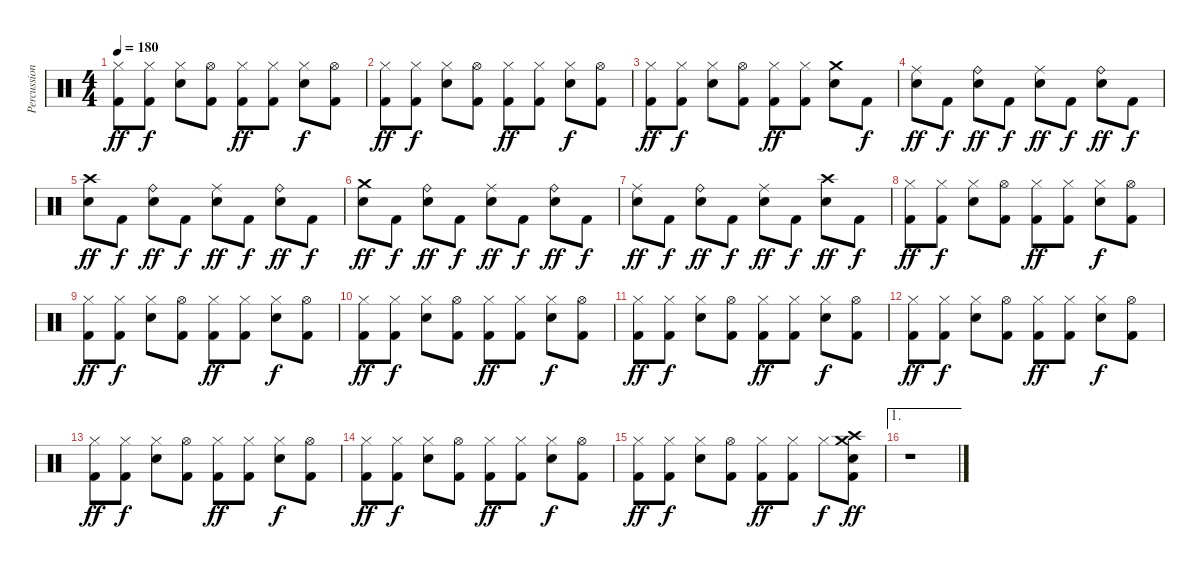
\track ("Percussions" "Percussion") {instrument percussion}
\staff {score}
\articulation defaults
\ts (4 4)
\tempo 180
\clef neutral
\ks c
("Hi-Hat (closed)" "Kick (hit) 2").8{dy ff} ("Hi-Hat (closed)" "Kick (hit) 2").8{dy f} ("Hi-Hat (closed)" "Snare (hit) 2").8 ("Hi-Hat (open)" "Kick (hit) 2").8 ("Hi-Hat (closed)" "Kick (hit) 2").8{dy ff} ("Hi-Hat (closed)" "Kick (hit) 2").8 ("Hi-Hat (closed)" "Snare (hit) 2").8{dy f} ("Hi-Hat (open)" "Kick (hit) 2").8 |
("Hi-Hat (closed)" "Kick (hit) 2").8{dy ff} ("Hi-Hat (closed)" "Kick (hit) 2").8{dy f} ("Hi-Hat (closed)" "Snare (hit) 2").8 ("Hi-Hat (open)" "Kick (hit) 2").8 ("Hi-Hat (closed)" "Kick (hit) 2").8{dy ff} ("Hi-Hat (closed)" "Kick (hit) 2").8 ("Hi-Hat (closed)" "Snare (hit) 2").8{dy f} ("Hi-Hat (open)" "Kick (hit) 2").8 |
("Hi-Hat (closed)" "Kick (hit) 2").8{dy ff} ("Hi-Hat (closed)" "Kick (hit) 2").8{dy f} ("Hi-Hat (closed)" "Snare (hit) 2").8 ("Hi-Hat (open)" "Kick (hit) 2").8 ("Hi-Hat (closed)" "Kick (hit) 2").8{dy ff} ("Hi-Hat (closed)" "Kick (hit) 2").8 ("Crash medium (hit)" "Snare (hit) 2").8 "Kick (hit) 2".8{dy f} |
("Ride (middle)" "Snare (hit) 2").8{dy ff} "Kick (hit) 2".8{dy f} ("Ride (bell)" "Snare (hit) 2").8{dy ff} "Kick (hit) 2".8{dy f} ("Ride (middle)" "Snare (hit) 2").8{dy ff} "Kick (hit) 2".8{dy f} ("Ride (bell)" "Snare (hit) 2").8{dy ff} "Kick (hit) 2".8{dy f} |
("Crash high (hit)" "Snare (hit) 2").8{dy ff} "Kick (hit) 2".8{dy f} ("Ride (bell)" "Snare (hit) 2").8{dy ff} "Kick (hit) 2".8{dy f} ("Ride (middle)" "Snare (hit) 2").8{dy ff} "Kick (hit) 2".8{dy f} ("Ride (bell)" "Snare (hit) 2").8{dy ff} "Kick (hit) 2".8{dy f} |
("Crash medium (hit)" "Snare (hit) 2").8{dy ff} "Kick (hit) 2".8{dy f} ("Ride (bell)" "Snare (hit) 2").8{dy ff} "Kick (hit) 2".8{dy f} ("Ride (middle)" "Snare (hit) 2").8{dy ff} "Kick (hit) 2".8{dy f} ("Ride (bell)" "Snare (hit) 2").8{dy ff} "Kick (hit) 2".8{dy f} |
("Ride (middle)" "Snare (hit) 2").8{dy ff} "Kick (hit) 2".8{dy f} ("Ride (bell)" "Snare (hit) 2").8{dy ff} "Kick (hit) 2".8{dy f} ("Ride (middle)" "Snare (hit) 2").8{dy ff} "Kick (hit) 2".8{dy f} ("Crash high (hit)" "Snare (hit) 2").8{dy ff} "Kick (hit) 2".8{dy f} |
("Hi-Hat (closed)" "Kick (hit) 2").8{dy ff} ("Hi-Hat (closed)" "Kick (hit) 2").8{dy f} ("Hi-Hat (closed)" "Snare (hit) 2").8 ("Hi-Hat (open)" "Kick (hit) 2").8 ("Hi-Hat (closed)" "Kick (hit) 2").8{dy ff} ("Hi-Hat (closed)" "Kick (hit) 2").8 ("Hi-Hat (closed)" "Snare (hit) 2").8{dy f} ("Hi-Hat (open)" "Kick (hit) 2").8 |
("Hi-Hat (closed)" "Kick (hit) 2").8{dy ff} ("Hi-Hat (closed)" "Kick (hit) 2").8{dy f} ("Hi-Hat (closed)" "Snare (hit) 2").8 ("Hi-Hat (open)" "Kick (hit) 2").8 ("Hi-Hat (closed)" "Kick (hit) 2").8{dy ff} ("Hi-Hat (closed)" "Kick (hit) 2").8 ("Hi-Hat (closed)" "Snare (hit) 2").8{dy f} ("Hi-Hat (open)" "Kick (hit) 2").8 |
("Hi-Hat (closed)" "Kick (hit) 2").8{dy ff} ("Hi-Hat (closed)" "Kick (hit) 2").8{dy f} ("Hi-Hat (closed)" "Snare (hit) 2").8 ("Hi-Hat (open)" "Kick (hit) 2").8 ("Hi-Hat (closed)" "Kick (hit) 2").8{dy ff} ("Hi-Hat (closed)" "Kick (hit) 2").8 ("Hi-Hat (closed)" "Snare (hit) 2").8{dy f} ("Hi-Hat (open)" "Kick (hit) 2").8 |
("Hi-Hat (closed)" "Kick (hit) 2").8{dy ff} ("Hi-Hat (closed)" "Kick (hit) 2").8{dy f} ("Hi-Hat (closed)" "Snare (hit) 2").8 ("Hi-Hat (open)" "Kick (hit) 2").8 ("Hi-Hat (closed)" "Kick (hit) 2").8{dy ff} ("Hi-Hat (closed)" "Kick (hit) 2").8 ("Hi-Hat (closed)" "Snare (hit) 2").8{dy f} ("Hi-Hat (open)" "Kick (hit) 2").8 |
("Hi-Hat (closed)" "Kick (hit) 2").8{dy ff} ("Hi-Hat (closed)" "Kick (hit) 2").8{dy f} ("Hi-Hat (closed)" "Snare (hit) 2").8 ("Hi-Hat (open)" "Kick (hit) 2").8 ("Hi-Hat (closed)" "Kick (hit) 2").8{dy ff} ("Hi-Hat (closed)" "Kick (hit) 2").8 ("Hi-Hat (closed)" "Snare (hit) 2").8{dy f} ("Hi-Hat (open)" "Kick (hit) 2").8 |
("Hi-Hat (closed)" "Kick (hit) 2").8{dy ff} ("Hi-Hat (closed)" "Kick (hit) 2").8{dy f} ("Hi-Hat (closed)" "Snare (hit) 2").8 ("Hi-Hat (open)" "Kick (hit) 2").8 ("Hi-Hat (closed)" "Kick (hit) 2").8{dy ff} ("Hi-Hat (closed)" "Kick (hit) 2").8 ("Hi-Hat (closed)" "Snare (hit) 2").8{dy f} ("Hi-Hat (open)" "Kick (hit) 2").8 |
("Hi-Hat (closed)" "Kick (hit) 2").8{dy ff} ("Hi-Hat (closed)" "Kick (hit) 2").8{dy f} ("Hi-Hat (closed)" "Snare (hit) 2").8 ("Hi-Hat (open)" "Kick (hit) 2").8 ("Hi-Hat (closed)" "Kick (hit) 2").8{dy ff} ("Hi-Hat (closed)" "Kick (hit) 2").8 ("Hi-Hat (closed)" "Snare (hit) 2").8{dy f} ("Hi-Hat (open)" "Kick (hit) 2").8 |
("Hi-Hat (closed)" "Kick (hit) 2").8{dy ff} ("Hi-Hat (closed)" "Kick (hit) 2").8{dy f} ("Hi-Hat (closed)" "Snare (hit) 2").8 ("Hi-Hat (open)" "Kick (hit) 2").8 ("Hi-Hat (closed)" "Kick (hit) 2").8{dy ff} ("Hi-Hat (closed)" "Kick (hit) 2").8 "Hi-Hat (closed)".8{dy f} ("Crash high (hit)" "Crash medium (hit)" "Snare (hit) 2" "Kick (hit) 2").8{dy ff} |
\ae 1
r.1
